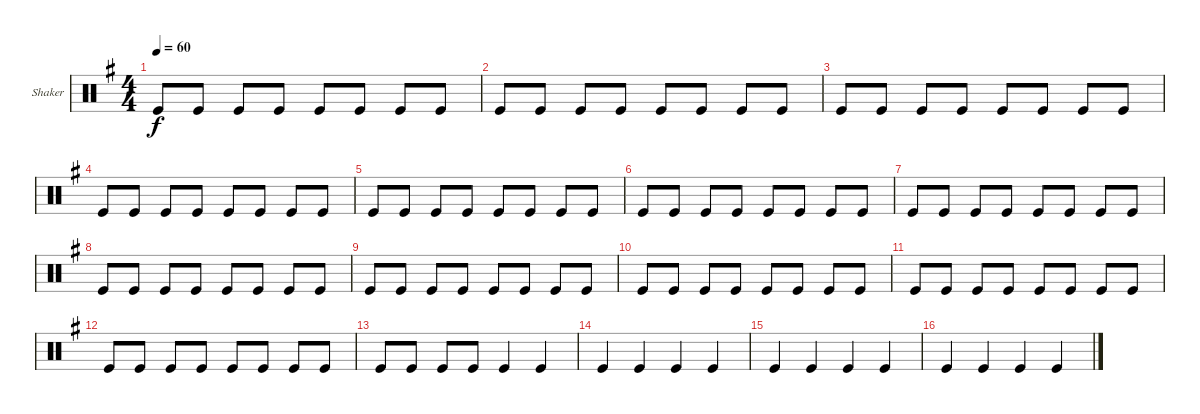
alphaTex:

\defaultSystemsLayout 4
\bracketExtendMode groupsimilarinstruments
\firstSystemTrackNameOrientation horizontal
\otherSystemsTrackNameOrientation horizontal
\track ("Shaker" "Shaker") {instrument percussion}
\staff {score}
\articulation defaults
\ts (4 4)
\tempo 60
\clef neutral
\scale
0.333333
\ks g "Kick (hit)".8{dy f} "Kick (hit)".8 "Kick (hit)".8 "Kick (hit)".8 "Kick (hit)".8 "Kick (hit)".8 "Kick (hit)".8 "Kick (hit)".8
|
\scale
0.333333 "Kick (hit)".8 "Kick (hit)".8 "Kick (hit)".8 "Kick (hit)".8 "Kick (hit)".8 "Kick (hit)".8 "Kick (hit)".8 "Kick (hit)".8 |
\scale
0.333333 "Kick (hit)".8 "Kick (hit)".8 "Kick (hit)".8 "Kick (hit)".8 "Kick (hit)".8 "Kick (hit)".8 "Kick (hit)".8 "Kick (hit)".8 |
\scale
0.333333 "Kick (hit)".8 "Kick (hit)".8 "Kick (hit)".8 "Kick (hit)".8 "Kick (hit)".8 "Kick (hit)".8 "Kick (hit)".8 "Kick (hit)".8 |
\scale
0.333333 "Kick (hit)".8 "Kick (hit)".8 "Kick (hit)".8 "Kick (hit)".8 "Kick (hit)".8 "Kick (hit)".8 "Kick (hit)".8 "Kick (hit)".8 |
\scale
0.333333 "Kick (hit)".8 "Kick (hit)".8 "Kick (hit)".8 "Kick (hit)".8 "Kick (hit)".8 "Kick (hit)".8 "Kick (hit)".8 "Kick (hit)".8 |
\scale
0.333333 "Kick (hit)".8 "Kick (hit)".8 "Kick (hit)".8 "Kick (hit)".8 "Kick (hit)".8 "Kick (hit)".8 "Kick (hit)".8 "Kick (hit)".8 |
\scale
0.333333 "Kick (hit)".8 "Kick (hit)".8 "Kick (hit)".8 "Kick (hit)".8 "Kick (hit)".8 "Kick (hit)".8 "Kick (hit)".8 "Kick (hit)".8 |
"Kick (hit)".8 "Kick (hit)".8 "Kick (hit)".8 "Kick (hit)".8 "Kick (hit)".8 "Kick (hit)".8 "Kick (hit)".8 "Kick (hit)".8 |
\scale
0.333333 "Kick (hit)".8 "Kick (hit)".8 "Kick (hit)".8 "Kick (hit)".8 "Kick (hit)".8 "Kick (hit)".8 "Kick (hit)".8 "Kick (hit)".8 |
\scale
0.333333 "Kick (hit)".8 "Kick (hit)".8 "Kick (hit)".8 "Kick (hit)".8 "Kick (hit)".8 "Kick (hit)".8 "Kick (hit)".8 "Kick (hit)".8 |
\scale
0.333333 "Kick (hit)".8 "Kick (hit)".8 "Kick (hit)".8 "Kick (hit)".8 "Kick (hit)".8 "Kick (hit)".8 "Kick (hit)".8 "Kick (hit)".8 |
\scale
0.333333 "Kick (hit)".8 "Kick (hit)".8 "Kick (hit)".8 "Kick (hit)".8 "Kick (hit)".4 "Kick (hit)".4 |
\scale
0.333333 "Kick (hit)".4 "Kick (hit)".4 "Kick (hit)".4 "Kick (hit)".4 |
"Kick (hit)".4 "Kick (hit)".4 "Kick (hit)".4 "Kick (hit)".4 |
\scale
0.333333 "Kick (hit)".4 "Kick (hit)".4 "Kick (hit)".4 "Kick (hit)".4
